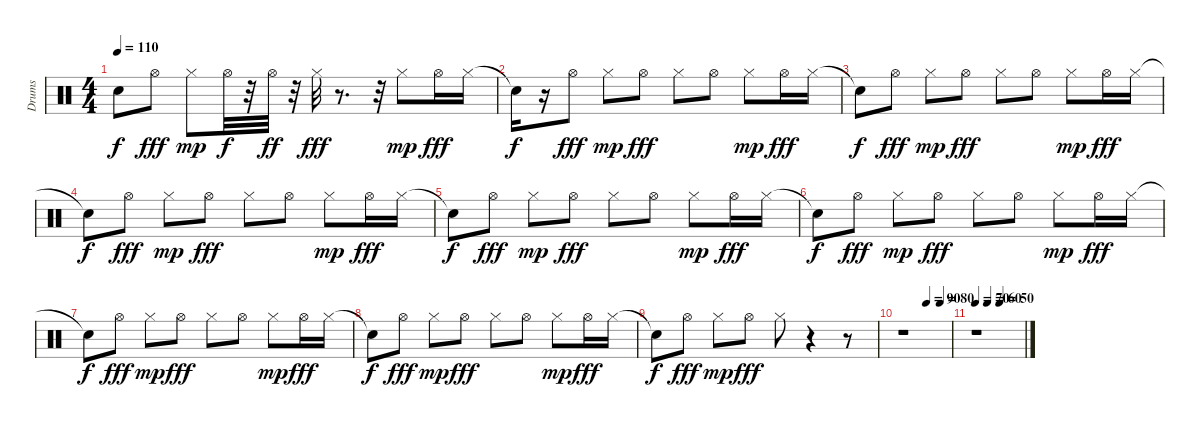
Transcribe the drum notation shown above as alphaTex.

\track ("Drums" "Drums") {instrument percussion}
\staff {score}
\articulation defaults
\ts (4 4)
\tempo 110
\clef neutral
\ks c "Snare (hit)"{t}.8{dy f} "Hi-Hat (open)".8{dy fff} "Hi-Hat (closed)".8{dy mp} "Hi-Hat (open)".32{dy f}
r.32 "Hi-Hat (open)".32{dy ff} r.32 "Hi-Hat (closed)".32{dy fff} r.8{d} r.32 "Hi-Hat (closed)".8{dy mp} "Hi-Hat (open)".16{dy fff} "Hi-Hat (closed)".16 |
"Snare (hit)"{t}.16{dy f} r.16 "Hi-Hat (open)".8{dy fff} "Hi-Hat (closed)".8{dy mp} "Hi-Hat (open)".8{dy fff} "Hi-Hat (closed)".8 "Hi-Hat (open)".8 "Hi-Hat (closed)".8{dy mp} "Hi-Hat (open)".16{dy fff} "Hi-Hat (closed)".16 |
"Snare (hit)"{t}.8{dy f} "Hi-Hat (open)".8{dy fff} "Hi-Hat (closed)".8{dy mp} "Hi-Hat (open)".8{dy fff} "Hi-Hat (closed)".8 "Hi-Hat (open)".8 "Hi-Hat (closed)".8{dy mp} "Hi-Hat (open)".16{dy fff} "Hi-Hat (closed)".16 |
"Snare (hit)"{t}.8{dy f} "Hi-Hat (open)".8{dy fff} "Hi-Hat (closed)".8{dy mp} "Hi-Hat (open)".8{dy fff} "Hi-Hat (closed)".8 "Hi-Hat (open)".8 "Hi-Hat (closed)".8{dy mp} "Hi-Hat (open)".16{dy fff} "Hi-Hat (closed)".16 |
"Snare (hit)"{t}.8{dy f} "Hi-Hat (open)".8{dy fff} "Hi-Hat (closed)".8{dy mp} "Hi-Hat (open)".8{dy fff} "Hi-Hat (closed)".8 "Hi-Hat (open)".8 "Hi-Hat (closed)".8{dy mp} "Hi-Hat (open)".16{dy fff} "Hi-Hat (closed)".16 |
"Snare (hit)"{t}.8{dy f} "Hi-Hat (open)".8{dy fff} "Hi-Hat (closed)".8{dy mp} "Hi-Hat (open)".8{dy fff} "Hi-Hat (closed)".8 "Hi-Hat (open)".8 "Hi-Hat (closed)".8{dy mp} "Hi-Hat (open)".16{dy fff} "Hi-Hat (closed)".16 |
"Snare (hit)"{t}.8{dy f} "Hi-Hat (open)".8{dy fff} "Hi-Hat (closed)".8{dy mp} "Hi-Hat (open)".8{dy fff} "Hi-Hat (closed)".8 "Hi-Hat (open)".8 "Hi-Hat (closed)".8{dy mp} "Hi-Hat (open)".16{dy fff} "Hi-Hat (closed)".16 |
"Snare (hit)"{t}.8{dy f} "Hi-Hat (open)".8{dy fff} "Hi-Hat (closed)".8{dy mp} "Hi-Hat (open)".8{dy fff} "Hi-Hat (closed)".8 "Hi-Hat (open)".8 "Hi-Hat (closed)".8{dy mp} "Hi-Hat (open)".16{dy fff} "Hi-Hat (closed)".16 |
"Snare (hit)"{t}.8{dy f} "Hi-Hat (open)".8{dy fff} "Hi-Hat (closed)".8{dy mp} "Hi-Hat (open)".8{dy fff} "Hi-Hat (closed)".8 r.4 r.8 |
\tempo (90 0.5)
\tempo (80 0.78125)
r.1 |
\tempo 70
\tempo (60 0.25)
\tempo (50 0.5)
r.1
